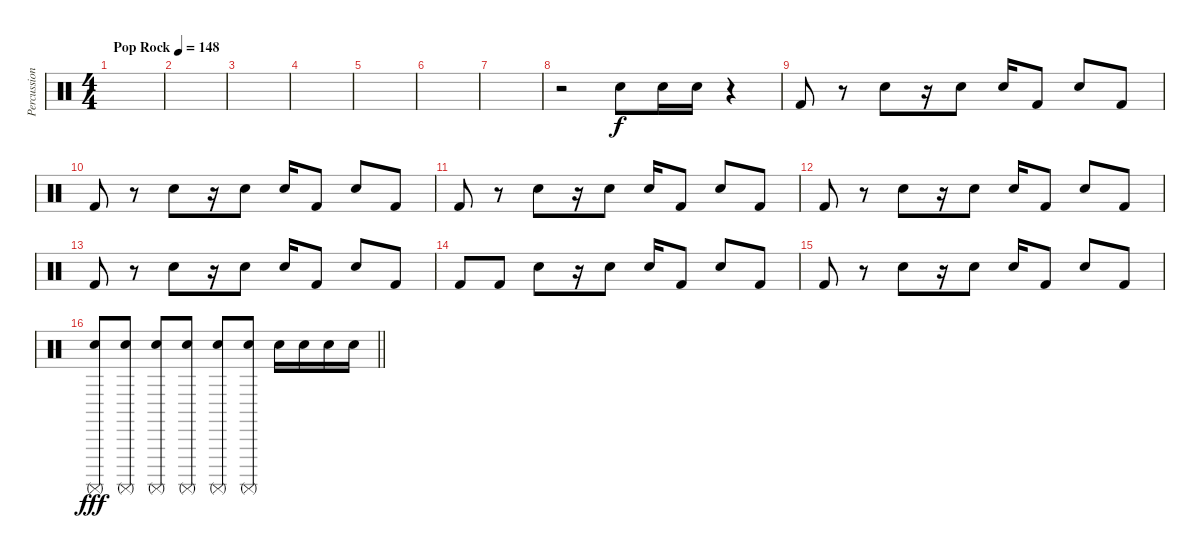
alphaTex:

\track ("Percussion" "Percussion") {instrument percussion}
\staff {score}
\articulation defaults
\ts (4 4)
\tempo (148 "Pop Rock")
\clef neutral
\ks c
|
|
|
|
|
|
|
r.2 "Electric Snare (hit)".8 "Electric Snare (hit)".16 "Electric Snare (hit)".16 r.4 |
"Kick (hit) 2".8{dy f} r.8 "Electric Snare (hit)".8 r.16 "Electric Snare (hit)".8 "Electric Snare (hit)".16 "Kick (hit) 2".8 "Electric Snare (hit)".8 "Kick (hit) 2".8 |
"Kick (hit) 2".8 r.8 "Electric Snare (hit)".8 r.16 "Electric Snare (hit)".8 "Electric Snare (hit)".16 "Kick (hit) 2".8 "Electric Snare (hit)".8 "Kick (hit) 2".8 |
"Kick (hit) 2".8 r.8 "Electric Snare (hit)".8 r.16 "Electric Snare (hit)".8 "Electric Snare (hit)".16 "Kick (hit) 2".8 "Electric Snare (hit)".8 "Kick (hit) 2".8 |
"Kick (hit) 2".8 r.8 "Electric Snare (hit)".8 r.16 "Electric Snare (hit)".8 "Electric Snare (hit)".16 "Kick (hit) 2".8 "Electric Snare (hit)".8 "Kick (hit) 2".8 |
"Kick (hit) 2".8 r.8 "Electric Snare (hit)".8 r.16 "Electric Snare (hit)".8 "Electric Snare (hit)".16 "Kick (hit) 2".8 "Electric Snare (hit)".8 "Kick (hit) 2".8 |
"Kick (hit) 2".8 "Kick (hit) 2".8 "Electric Snare (hit)".8 r.16 "Electric Snare (hit)".8 "Electric Snare (hit)".16 "Kick (hit) 2".8 "Electric Snare (hit)".8 "Kick (hit) 2".8 |
"Kick (hit) 2".8 r.8 "Electric Snare (hit)".8 r.16 "Electric Snare (hit)".8 "Electric Snare (hit)".16 "Kick (hit) 2".8 "Electric Snare (hit)".8 "Kick (hit) 2".8 |
\barLineRight lightlight
("Surdo (mute)" "Electric Snare (hit)").8{dy fff} ("Surdo (mute)" "Electric Snare (hit)").8 ("Surdo (mute)" "Electric Snare (hit)").8 ("Surdo (mute)" "Electric Snare (hit)").8 ("Surdo (mute)" "Electric Snare (hit)").8 ("Surdo (mute)" "Electric Snare (hit)").8 "Electric Snare (hit)".16 "Electric Snare (hit)".16 "Electric Snare (hit)".16 "Electric Snare (hit)".16
